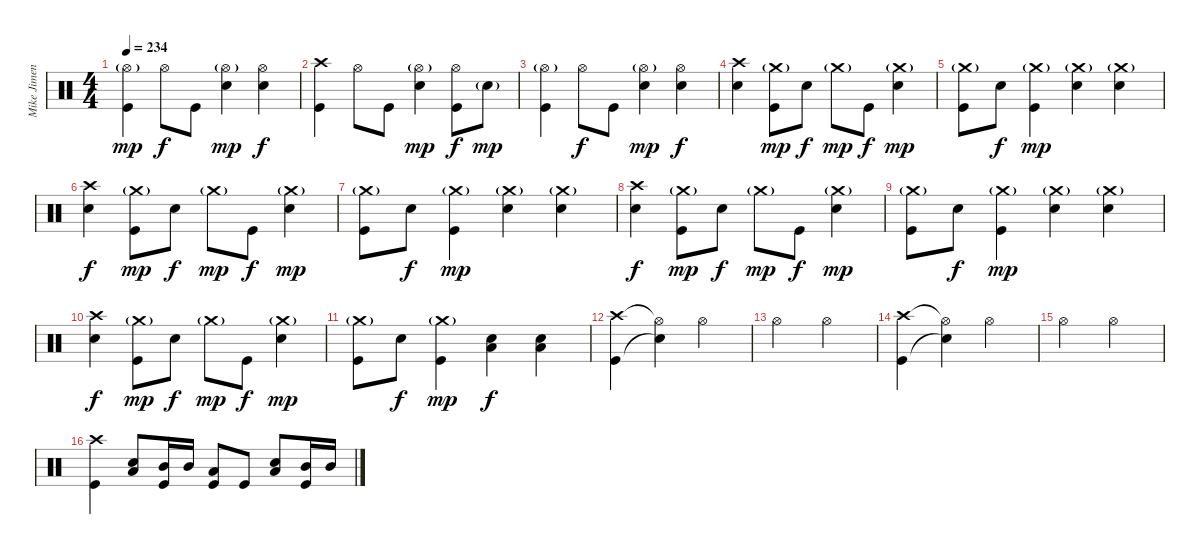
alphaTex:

\track ("Mike Jimenez" "Mike Jimen") {instrument percussion}
\staff {score}
\articulation defaults
\ts (4 4)
\tempo 234
\clef neutral
\ks c
("Hi-Hat (open)"{g} "Kick (hit)").4{dy mp} "Hi-Hat (open)".8{dy f} "Kick (hit)".8 ("Hi-Hat (open)"{g} "Electric Snare (hit)").4{dy mp} ("Hi-Hat (open)" "Electric Snare (hit)").4{dy f} |
("Crash high (hit)" "Kick (hit)").4 "Hi-Hat (open)".8 "Kick (hit)".8 ("Hi-Hat (open)"{g} "Electric Snare (hit)").4{dy mp} ("Hi-Hat (open)" "Kick (hit)").8{dy f} "Electric Snare (hit)"{g}.8{dy mp} |
("Hi-Hat (open)"{g} "Kick (hit)").4 "Hi-Hat (open)".8{dy f} "Kick (hit)".8 ("Hi-Hat (open)"{g} "Electric Snare (hit)").4{dy mp} ("Hi-Hat (open)" "Electric Snare (hit)").4{dy f} |
("Crash high (hit)" "Electric Snare (hit)").4 ("Crash medium (hit)"{g} "Kick (hit)").8{dy mp} "Electric Snare (hit)".8{dy f} "Crash medium (hit)"{g}.8{dy mp} "Kick (hit)".8{dy f} ("Crash medium (hit)"{g} "Electric Snare (hit)").4{dy mp} |
("Crash medium (hit)"{g} "Kick (hit)").8 "Electric Snare (hit)".8{dy f} ("Crash medium (hit)"{g} "Kick (hit)").4{dy mp} ("Crash medium (hit)"{g} "Electric Snare (hit)").4 ("Crash medium (hit)"{g} "Electric Snare (hit)").4 |
("Crash high (hit)" "Electric Snare (hit)").4{dy f} ("Crash medium (hit)"{g} "Kick (hit)").8{dy mp} "Electric Snare (hit)".8{dy f} "Crash medium (hit)"{g}.8{dy mp} "Kick (hit)".8{dy f} ("Crash medium (hit)"{g} "Electric Snare (hit)").4{dy mp} |
("Crash medium (hit)"{g} "Kick (hit)").8 "Electric Snare (hit)".8{dy f} ("Crash medium (hit)"{g} "Kick (hit)").4{dy mp} ("Crash medium (hit)"{g} "Electric Snare (hit)").4 ("Crash medium (hit)"{g} "Electric Snare (hit)").4 |
("Crash high (hit)" "Electric Snare (hit)").4{dy f} ("Crash medium (hit)"{g} "Kick (hit)").8{dy mp} "Electric Snare (hit)".8{dy f} "Crash medium (hit)"{g}.8{dy mp} "Kick (hit)".8{dy f} ("Crash medium (hit)"{g} "Electric Snare (hit)").4{dy mp} |
("Crash medium (hit)"{g} "Kick (hit)").8 "Electric Snare (hit)".8{dy f} ("Crash medium (hit)"{g} "Kick (hit)").4{dy mp} ("Crash medium (hit)"{g} "Electric Snare (hit)").4 ("Crash medium (hit)"{g} "Electric Snare (hit)").4 |
("Crash high (hit)" "Electric Snare (hit)").4{dy f} ("Crash medium (hit)"{g} "Kick (hit)").8{dy mp} "Electric Snare (hit)".8{dy f} "Crash medium (hit)"{g}.8{dy mp} "Kick (hit)".8{dy f} ("Crash medium (hit)"{g} "Electric Snare (hit)").4{dy mp} |
("Crash medium (hit)"{g} "Kick (hit)").8 "Electric Snare (hit)".8{dy f} ("Crash medium (hit)"{g} "Kick (hit)").4{dy mp} ("Low Tom (hit)" "Electric Snare (hit)").4{dy f} ("Low Tom (hit)" "Electric Snare (hit)").4 |
("Crash high (hit)" "Kick (hit)").4 ("Hi-Hat (open)"{t} "Snare (hit)"{t}).4 "Hi-Hat (open)".2 |
"Hi-Hat (open)".2 "Hi-Hat (open)".2 |
("Crash high (hit)" "Kick (hit)").4 ("Hi-Hat (open)"{t} "Snare (hit)"{t}).4 "Hi-Hat (open)".2 |
"Hi-Hat (open)".2 "Hi-Hat (open)".2 |
("Crash high (hit)" "Kick (hit)").4 ("Electric Snare (hit)" "Low Tom (hit)").8 ("Mid Tom (hit)" "Kick (hit)").16 "Mid Tom (hit)".16 ("Low Tom (hit)" "Kick (hit)").8 "Kick (hit)".8 ("Low Tom (hit)" "Electric Snare (hit)").8 ("Mid Tom (hit)" "Kick (hit)").16 "Mid Tom (hit)".16
